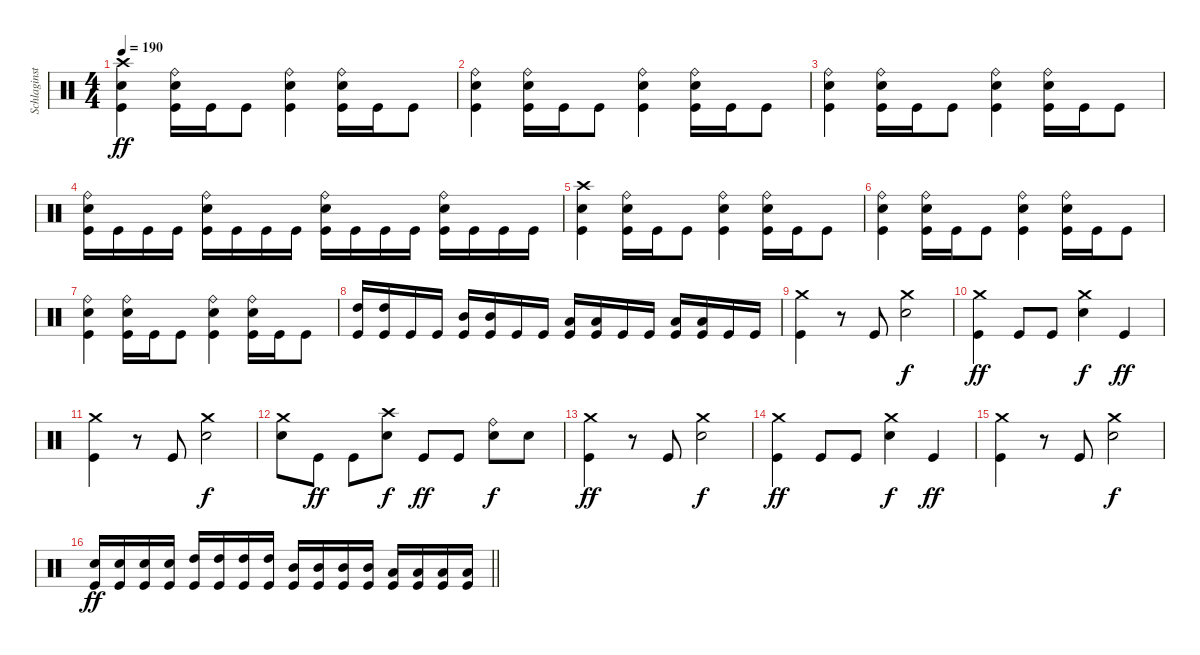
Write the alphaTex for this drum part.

\track ("Schlaginstrumente - Auswahl" "Schlaginst") {instrument percussion}
\staff {score}
\articulation defaults
\ts (4 4)
\tempo 190
\clef neutral
\ks c
("Crash high (hit)" "Electric Snare (hit)" "Kick (hit)").4{dy ff} ("Ride (bell)" "Electric Snare (hit)" "Kick (hit)").16 "Kick (hit)".16 "Kick (hit)".8 ("Ride (bell)" "Electric Snare (hit)" "Kick (hit)").4 ("Ride (bell)" "Electric Snare (hit)" "Kick (hit)").16 "Kick (hit)".16 "Kick (hit)".8 |
("Ride (bell)" "Electric Snare (hit)" "Kick (hit)").4 ("Ride (bell)" "Electric Snare (hit)" "Kick (hit)").16 "Kick (hit)".16 "Kick (hit)".8 ("Ride (bell)" "Electric Snare (hit)" "Kick (hit)").4 ("Ride (bell)" "Electric Snare (hit)" "Kick (hit)").16 "Kick (hit)".16 "Kick (hit)".8 |
("Ride (bell)" "Electric Snare (hit)" "Kick (hit)").4 ("Ride (bell)" "Electric Snare (hit)" "Kick (hit)").16 "Kick (hit)".16 "Kick (hit)".8 ("Ride (bell)" "Electric Snare (hit)" "Kick (hit)").4 ("Ride (bell)" "Electric Snare (hit)" "Kick (hit)").16 "Kick (hit)".16 "Kick (hit)".8 |
("Ride (bell)" "Electric Snare (hit)" "Kick (hit)").16 "Kick (hit)".16 "Kick (hit)".16 "Kick (hit)".16 ("Ride (bell)" "Electric Snare (hit)" "Kick (hit)").16 "Kick (hit)".16 "Kick (hit)".16 "Kick (hit)".16 ("Ride (bell)" "Electric Snare (hit)" "Kick (hit)").16 "Kick (hit)".16 "Kick (hit)".16 "Kick (hit)".16 ("Ride (bell)" "Electric Snare (hit)" "Kick (hit)").16 "Kick (hit)".16 "Kick (hit)".16 "Kick (hit)".16 |
("Crash high (hit)" "Electric Snare (hit)" "Kick (hit)").4 ("Ride (bell)" "Electric Snare (hit)" "Kick (hit)").16 "Kick (hit)".16 "Kick (hit)".8 ("Ride (bell)" "Electric Snare (hit)" "Kick (hit)").4 ("Ride (bell)" "Electric Snare (hit)" "Kick (hit)").16 "Kick (hit)".16 "Kick (hit)".8 |
("Ride (bell)" "Electric Snare (hit)" "Kick (hit)").4 ("Ride (bell)" "Electric Snare (hit)" "Kick (hit)").16 "Kick (hit)".16 "Kick (hit)".8 ("Ride (bell)" "Electric Snare (hit)" "Kick (hit)").4 ("Ride (bell)" "Electric Snare (hit)" "Kick (hit)").16 "Kick (hit)".16 "Kick (hit)".8 |
("Ride (bell)" "Electric Snare (hit)" "Kick (hit)").4 ("Ride (bell)" "Electric Snare (hit)" "Kick (hit)").16 "Kick (hit)".16 "Kick (hit)".8 ("Ride (bell)" "Electric Snare (hit)" "Kick (hit)").4 ("Ride (bell)" "Electric Snare (hit)" "Kick (hit)").16 "Kick (hit)".16 "Kick (hit)".8 |
("High Tom (hit)" "Kick (hit)").16 ("High Tom (hit)" "Kick (hit)").16 "Kick (hit)".16 "Kick (hit)".16 ("Mid Tom (hit)" "Kick (hit)").16 ("Mid Tom (hit)" "Kick (hit)").16 "Kick (hit)".16 "Kick (hit)".16 ("Low Tom (hit)" "Kick (hit)").16 ("Low Tom (hit)" "Kick (hit)").16 "Kick (hit)".16 "Kick (hit)".16 ("Low Floor Tom (hit)" "Kick (hit)").16 ("Low Floor Tom (hit)" "Kick (hit)").16 "Kick (hit)".16 "Kick (hit)".16 |
("Crash medium (hit)" "Kick (hit)").4 r.8 "Kick (hit)".8 ("Crash medium (hit)" "Electric Snare (hit)").2{dy f} |
("Crash medium (hit)" "Kick (hit)").4{dy ff} "Kick (hit)".8 "Kick (hit)".8 ("Crash medium (hit)" "Electric Snare (hit)").4{dy f} "Kick (hit)".4{dy ff} |
("Crash medium (hit)" "Kick (hit)").4 r.8 "Kick (hit)".8 ("Crash medium (hit)" "Electric Snare (hit)").2{dy f} |
("Electric Snare (hit)" "Crash medium (hit)").8 "Kick (hit)".8{dy ff} "Kick (hit)".8 ("Electric Snare (hit)" "Crash high (hit)").8{dy f} "Kick (hit)".8{dy ff} "Kick (hit)".8 ("Ride (bell)" "Electric Snare (hit)").8{dy f} "Electric Snare (hit)".8 |
("Crash medium (hit)" "Kick (hit)").4{dy ff} r.8 "Kick (hit)".8 ("Crash medium (hit)" "Electric Snare (hit)").2{dy f} |
("Crash medium (hit)" "Kick (hit)").4{dy ff} "Kick (hit)".8 "Kick (hit)".8 ("Crash medium (hit)" "Electric Snare (hit)").4{dy f} "Kick (hit)".4{dy ff} |
("Crash medium (hit)" "Kick (hit)").4 r.8 "Kick (hit)".8 ("Crash medium (hit)" "Electric Snare (hit)").2{dy f} |
\barLineRight lightlight
("Electric Snare (hit)" "Kick (hit)").16{dy ff} ("Electric Snare (hit)" "Kick (hit)").16 ("Electric Snare (hit)" "Kick (hit)").16 ("Electric Snare (hit)" "Kick (hit)").16 ("High Tom (hit)" "Kick (hit)").16 ("High Tom (hit)" "Kick (hit)").16 ("High Tom (hit)" "Kick (hit)").16 ("High Tom (hit)" "Kick (hit)").16 ("Mid Tom (hit)" "Kick (hit)").16 ("Mid Tom (hit)" "Kick (hit)").16 ("Mid Tom (hit)" "Kick (hit)").16 ("Mid Tom (hit)" "Kick (hit)").16 ("Low Tom (hit)" "Kick (hit)").16 ("Low Tom (hit)" "Kick (hit)").16 ("Low Tom (hit)" "Kick (hit)").16 ("Low Tom (hit)" "Kick (hit)").16
